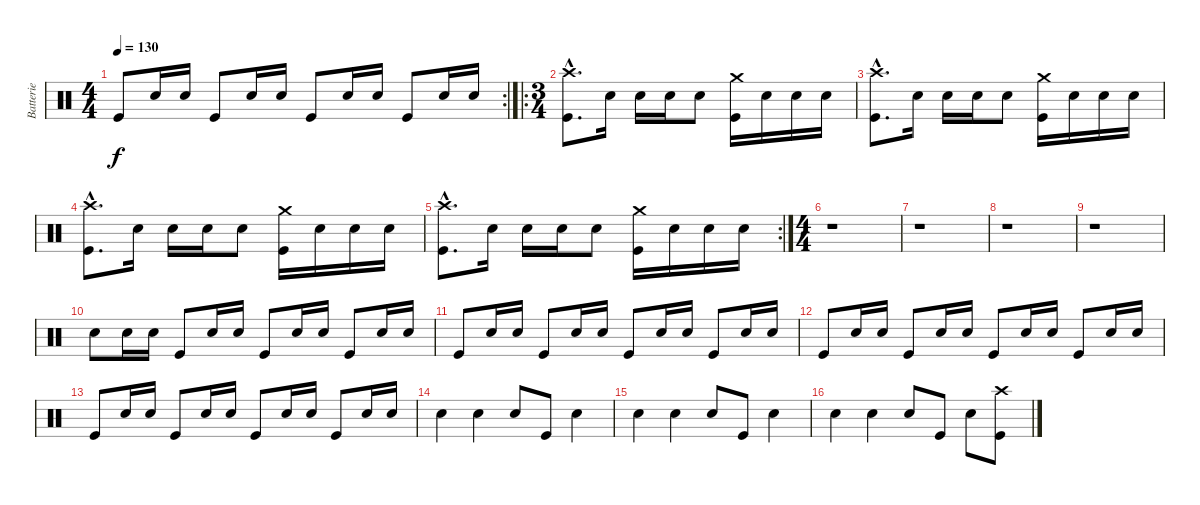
\track ("Batterie" "Batterie") {instrument percussion}
\staff {score}
\articulation defaults
\rc 2
\ts (4 4)
\tempo 130
\clef neutral
\ks c "Kick (hit)".8{dy f} "Snare (hit) 2".16 "Snare (hit) 2".16 "Kick (hit)".8 "Snare (hit) 2".16 "Snare (hit) 2".16 "Kick (hit)".8 "Snare (hit) 2".16 "Snare (hit) 2".16 "Kick (hit)".8 "Snare (hit) 2".16 "Snare (hit) 2".16
|
\ro
\ts (3 4)
("Crash high (hit)"{hac} "Kick (hit)"{hac}).8{d} "Snare (hit) 2".16 "Snare (hit) 2".16 "Snare (hit) 2".16 "Snare (hit) 2".8 ("Crash medium (hit)" "Kick (hit)").16 "Snare (hit) 2".16 "Snare (hit) 2".16 "Snare (hit) 2".16 |
("Crash high (hit)"{hac} "Kick (hit)"{hac}).8{d} "Snare (hit) 2".16 "Snare (hit) 2".16 "Snare (hit) 2".16 "Snare (hit) 2".8 ("Crash medium (hit)" "Kick (hit)").16 "Snare (hit) 2".16 "Snare (hit) 2".16 "Snare (hit) 2".16 |
("Crash high (hit)"{hac} "Kick (hit)"{hac}).8{d} "Snare (hit) 2".16 "Snare (hit) 2".16 "Snare (hit) 2".16 "Snare (hit) 2".8 ("Crash medium (hit)" "Kick (hit)").16 "Snare (hit) 2".16 "Snare (hit) 2".16 "Snare (hit) 2".16 |
\rc 2
("Crash high (hit)"{hac} "Kick (hit)"{hac}).8{d} "Snare (hit) 2".16 "Snare (hit) 2".16 "Snare (hit) 2".16 "Snare (hit) 2".8 ("Crash medium (hit)" "Kick (hit)").16 "Snare (hit) 2".16 "Snare (hit) 2".16 "Snare (hit) 2".16 |
\ts (4 4)
r.1 |
r.1 |
r.1 |
r.1 |
"Snare (hit) 2".8 "Snare (hit) 2".16 "Snare (hit) 2".16 "Kick (hit)".8 "Snare (hit) 2".16 "Snare (hit) 2".16 "Kick (hit)".8 "Snare (hit) 2".16 "Snare (hit) 2".16 "Kick (hit)".8 "Snare (hit) 2".16 "Snare (hit) 2".16 |
"Kick (hit)".8 "Snare (hit) 2".16 "Snare (hit) 2".16 "Kick (hit)".8 "Snare (hit) 2".16 "Snare (hit) 2".16 "Kick (hit)".8 "Snare (hit) 2".16 "Snare (hit) 2".16 "Kick (hit)".8 "Snare (hit) 2".16 "Snare (hit) 2".16 |
"Kick (hit)".8 "Snare (hit) 2".16 "Snare (hit) 2".16 "Kick (hit)".8 "Snare (hit) 2".16 "Snare (hit) 2".16 "Kick (hit)".8 "Snare (hit) 2".16 "Snare (hit) 2".16 "Kick (hit)".8 "Snare (hit) 2".16 "Snare (hit) 2".16 |
"Kick (hit)".8 "Snare (hit) 2".16 "Snare (hit) 2".16 "Kick (hit)".8 "Snare (hit) 2".16 "Snare (hit) 2".16 "Kick (hit)".8 "Snare (hit) 2".16 "Snare (hit) 2".16 "Kick (hit)".8 "Snare (hit) 2".16 "Snare (hit) 2".16 |
"Snare (hit) 2".4 "Snare (hit) 2".4 "Snare (hit) 2".8 "Kick (hit)".8 "Snare (hit) 2".4 |
"Snare (hit) 2".4 "Snare (hit) 2".4 "Snare (hit) 2".8 "Kick (hit)".8 "Snare (hit) 2".4 |
"Snare (hit) 2".4 "Snare (hit) 2".4 "Snare (hit) 2".8 "Kick (hit)".8 "Snare (hit) 2".8 ("Crash high (hit)" "Kick (hit)").8
